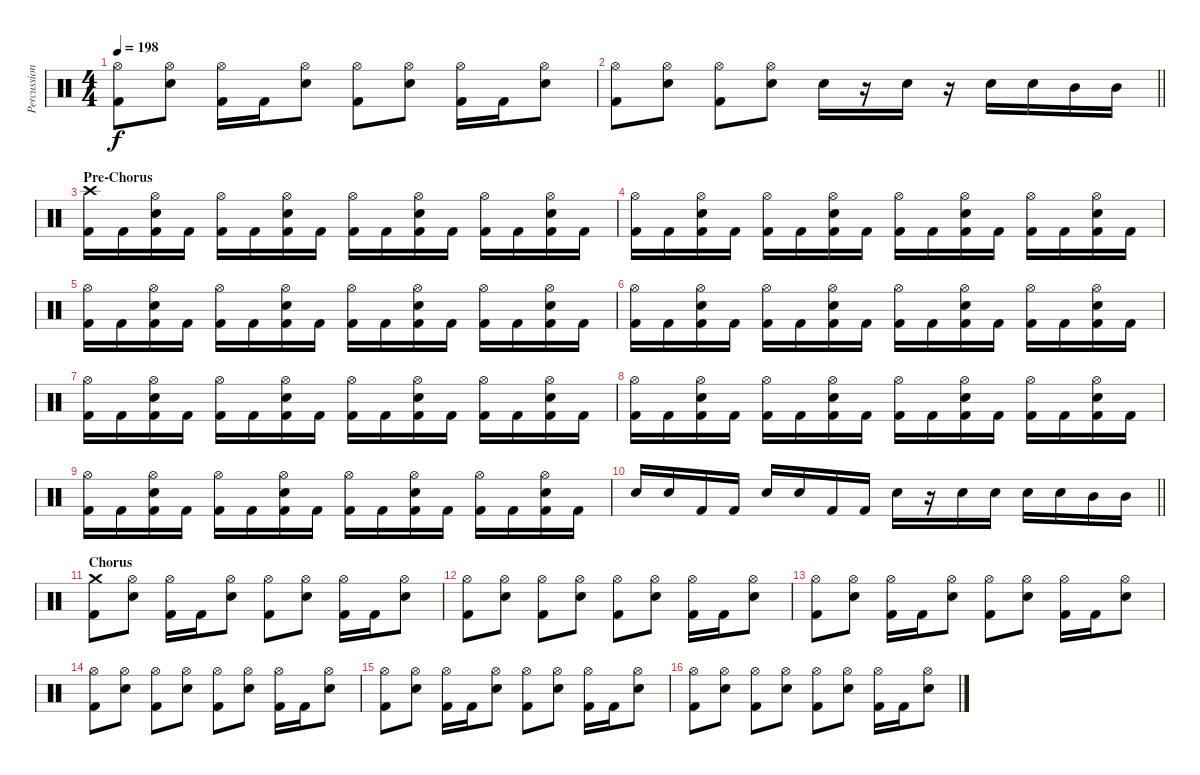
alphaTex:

\track ("Percussion" "Percussion") {instrument percussion}
\staff {score}
\articulation defaults
\ts (4 4)
\tempo 198
\clef neutral
\ks c
("Hi-Hat (open)" "Kick (hit) 2").8{dy f} ("Hi-Hat (open)" "Electric Snare (hit)").8 ("Hi-Hat (open)" "Kick (hit) 2").16 "Kick (hit) 2".16 ("Hi-Hat (open)" "Electric Snare (hit)").8 ("Hi-Hat (open)" "Kick (hit) 2").8 ("Hi-Hat (open)" "Electric Snare (hit)").8 ("Hi-Hat (open)" "Kick (hit) 2").16 "Kick (hit) 2".16 ("Hi-Hat (open)" "Electric Snare (hit)").8 |
\barLineRight lightlight
("Hi-Hat (open)" "Kick (hit) 2").8 ("Hi-Hat (open)" "Electric Snare (hit)").8 ("Hi-Hat (open)" "Kick (hit) 2").8 ("Hi-Hat (open)" "Electric Snare (hit)").8 "Electric Snare (hit)".16 r.16 "Electric Snare (hit)".16 r.16 "Electric Snare (hit)".16 "Electric Snare (hit)".16 "Mid Tom (hit)".16 "Mid Tom (hit)".16 |
\section ("" "Pre-Chorus")
("Crash high (hit)" "Kick (hit) 2").16 "Kick (hit) 2".16 ("Hi-Hat (open)" "Electric Snare (hit)" "Kick (hit) 2").16 "Kick (hit) 2".16 ("Hi-Hat (open)" "Kick (hit) 2").16 "Kick (hit) 2".16 ("Hi-Hat (open)" "Electric Snare (hit)" "Kick (hit) 2").16 "Kick (hit) 2".16 ("Hi-Hat (open)" "Kick (hit) 2").16 "Kick (hit) 2".16 ("Hi-Hat (open)" "Electric Snare (hit)" "Kick (hit) 2").16 "Kick (hit) 2".16 ("Hi-Hat (open)" "Kick (hit) 2").16 "Kick (hit) 2".16 ("Hi-Hat (open)" "Electric Snare (hit)" "Kick (hit) 2").16 "Kick (hit) 2".16 |
("Hi-Hat (open)" "Kick (hit) 2").16 "Kick (hit) 2".16 ("Hi-Hat (open)" "Electric Snare (hit)" "Kick (hit) 2").16 "Kick (hit) 2".16 ("Hi-Hat (open)" "Kick (hit) 2").16 "Kick (hit) 2".16 ("Hi-Hat (open)" "Electric Snare (hit)" "Kick (hit) 2").16 "Kick (hit) 2".16 ("Hi-Hat (open)" "Kick (hit) 2").16 "Kick (hit) 2".16 ("Hi-Hat (open)" "Electric Snare (hit)" "Kick (hit) 2").16 "Kick (hit) 2".16 ("Hi-Hat (open)" "Kick (hit) 2").16 "Kick (hit) 2".16 ("Hi-Hat (open)" "Electric Snare (hit)" "Kick (hit) 2").16 "Kick (hit) 2".16 |
("Hi-Hat (open)" "Kick (hit) 2").16 "Kick (hit) 2".16 ("Hi-Hat (open)" "Electric Snare (hit)" "Kick (hit) 2").16 "Kick (hit) 2".16 ("Hi-Hat (open)" "Kick (hit) 2").16 "Kick (hit) 2".16 ("Hi-Hat (open)" "Electric Snare (hit)" "Kick (hit) 2").16 "Kick (hit) 2".16 ("Hi-Hat (open)" "Kick (hit) 2").16 "Kick (hit) 2".16 ("Hi-Hat (open)" "Electric Snare (hit)" "Kick (hit) 2").16 "Kick (hit) 2".16 ("Hi-Hat (open)" "Kick (hit) 2").16 "Kick (hit) 2".16 ("Hi-Hat (open)" "Electric Snare (hit)" "Kick (hit) 2").16 "Kick (hit) 2".16 |
("Hi-Hat (open)" "Kick (hit) 2").16 "Kick (hit) 2".16 ("Hi-Hat (open)" "Electric Snare (hit)" "Kick (hit) 2").16 "Kick (hit) 2".16 ("Hi-Hat (open)" "Kick (hit) 2").16 "Kick (hit) 2".16 ("Hi-Hat (open)" "Electric Snare (hit)" "Kick (hit) 2").16 "Kick (hit) 2".16 ("Hi-Hat (open)" "Kick (hit) 2").16 "Kick (hit) 2".16 ("Hi-Hat (open)" "Electric Snare (hit)" "Kick (hit) 2").16 "Kick (hit) 2".16 ("Hi-Hat (open)" "Kick (hit) 2").16 "Kick (hit) 2".16 ("Hi-Hat (open)" "Electric Snare (hit)" "Kick (hit) 2").16 "Kick (hit) 2".16 |
("Hi-Hat (open)" "Kick (hit) 2").16 "Kick (hit) 2".16 ("Hi-Hat (open)" "Electric Snare (hit)" "Kick (hit) 2").16 "Kick (hit) 2".16 ("Hi-Hat (open)" "Kick (hit) 2").16 "Kick (hit) 2".16 ("Hi-Hat (open)" "Electric Snare (hit)" "Kick (hit) 2").16 "Kick (hit) 2".16 ("Hi-Hat (open)" "Kick (hit) 2").16 "Kick (hit) 2".16 ("Hi-Hat (open)" "Electric Snare (hit)" "Kick (hit) 2").16 "Kick (hit) 2".16 ("Hi-Hat (open)" "Kick (hit) 2").16 "Kick (hit) 2".16 ("Hi-Hat (open)" "Electric Snare (hit)" "Kick (hit) 2").16 "Kick (hit) 2".16 |
("Hi-Hat (open)" "Kick (hit) 2").16 "Kick (hit) 2".16 ("Hi-Hat (open)" "Electric Snare (hit)" "Kick (hit) 2").16 "Kick (hit) 2".16 ("Hi-Hat (open)" "Kick (hit) 2").16 "Kick (hit) 2".16 ("Hi-Hat (open)" "Electric Snare (hit)" "Kick (hit) 2").16 "Kick (hit) 2".16 ("Hi-Hat (open)" "Kick (hit) 2").16 "Kick (hit) 2".16 ("Hi-Hat (open)" "Electric Snare (hit)" "Kick (hit) 2").16 "Kick (hit) 2".16 ("Hi-Hat (open)" "Kick (hit) 2").16 "Kick (hit) 2".16 ("Hi-Hat (open)" "Electric Snare (hit)" "Kick (hit) 2").16 "Kick (hit) 2".16 |
("Hi-Hat (open)" "Kick (hit) 2").16 "Kick (hit) 2".16 ("Hi-Hat (open)" "Electric Snare (hit)" "Kick (hit) 2").16 "Kick (hit) 2".16 ("Hi-Hat (open)" "Kick (hit) 2").16 "Kick (hit) 2".16 ("Hi-Hat (open)" "Electric Snare (hit)" "Kick (hit) 2").16 "Kick (hit) 2".16 ("Hi-Hat (open)" "Kick (hit) 2").16 "Kick (hit) 2".16 ("Hi-Hat (open)" "Electric Snare (hit)" "Kick (hit) 2").16 "Kick (hit) 2".16 ("Hi-Hat (open)" "Kick (hit) 2").16 "Kick (hit) 2".16 ("Hi-Hat (open)" "Electric Snare (hit)" "Kick (hit) 2").16 "Kick (hit) 2".16 |
\barLineRight lightlight "Electric Snare (hit)".16 "Electric Snare (hit)".16 "Kick (hit) 2".16 "Kick (hit) 2".16 "Electric Snare (hit)".16 "Electric Snare (hit)".16 "Kick (hit) 2".16 "Kick (hit) 2".16 "Electric Snare (hit)".16
r.16 "Electric Snare (hit)".16 "Electric Snare (hit)".16 "Electric Snare (hit)".16 "Electric Snare (hit)".16 "Mid Tom (hit)".16 "Mid Tom (hit)".16 |
\section ("" "Chorus")
("Crash medium (hit)" "Kick (hit) 2").8 ("Hi-Hat (open)" "Electric Snare (hit)").8 ("Hi-Hat (open)" "Kick (hit) 2").16 "Kick (hit) 2".16 ("Hi-Hat (open)" "Electric Snare (hit)").8 ("Hi-Hat (open)" "Kick (hit) 2").8 ("Hi-Hat (open)" "Electric Snare (hit)").8 ("Hi-Hat (open)" "Kick (hit) 2").16 "Kick (hit) 2".16 ("Hi-Hat (open)" "Electric Snare (hit)").8 |
("Hi-Hat (open)" "Kick (hit) 2").8 ("Hi-Hat (open)" "Electric Snare (hit)").8 ("Hi-Hat (open)" "Kick (hit) 2").8 ("Hi-Hat (open)" "Electric Snare (hit)").8 ("Hi-Hat (open)" "Kick (hit) 2").8 ("Hi-Hat (open)" "Electric Snare (hit)").8 ("Hi-Hat (open)" "Kick (hit) 2").16 "Kick (hit) 2".16 ("Hi-Hat (open)" "Electric Snare (hit)").8 |
("Hi-Hat (open)" "Kick (hit) 2").8 ("Hi-Hat (open)" "Electric Snare (hit)").8 ("Hi-Hat (open)" "Kick (hit) 2").16 "Kick (hit) 2".16 ("Hi-Hat (open)" "Electric Snare (hit)").8 ("Hi-Hat (open)" "Kick (hit) 2").8 ("Hi-Hat (open)" "Electric Snare (hit)").8 ("Hi-Hat (open)" "Kick (hit) 2").16 "Kick (hit) 2".16 ("Hi-Hat (open)" "Electric Snare (hit)").8 |
("Hi-Hat (open)" "Kick (hit) 2").8 ("Hi-Hat (open)" "Electric Snare (hit)").8 ("Hi-Hat (open)" "Kick (hit) 2").8 ("Hi-Hat (open)" "Electric Snare (hit)").8 ("Hi-Hat (open)" "Kick (hit) 2").8 ("Hi-Hat (open)" "Electric Snare (hit)").8 ("Hi-Hat (open)" "Kick (hit) 2").16 "Kick (hit) 2".16 ("Hi-Hat (open)" "Electric Snare (hit)").8 |
("Hi-Hat (open)" "Kick (hit) 2").8 ("Hi-Hat (open)" "Electric Snare (hit)").8 ("Hi-Hat (open)" "Kick (hit) 2").16 "Kick (hit) 2".16 ("Hi-Hat (open)" "Electric Snare (hit)").8 ("Hi-Hat (open)" "Kick (hit) 2").8 ("Hi-Hat (open)" "Electric Snare (hit)").8 ("Hi-Hat (open)" "Kick (hit) 2").16 "Kick (hit) 2".16 ("Hi-Hat (open)" "Electric Snare (hit)").8 |
("Hi-Hat (open)" "Kick (hit) 2").8 ("Hi-Hat (open)" "Electric Snare (hit)").8 ("Hi-Hat (open)" "Kick (hit) 2").8 ("Hi-Hat (open)" "Electric Snare (hit)").8 ("Hi-Hat (open)" "Kick (hit) 2").8 ("Hi-Hat (open)" "Electric Snare (hit)").8 ("Hi-Hat (open)" "Kick (hit) 2").16 "Kick (hit) 2".16 ("Hi-Hat (open)" "Electric Snare (hit)").8
